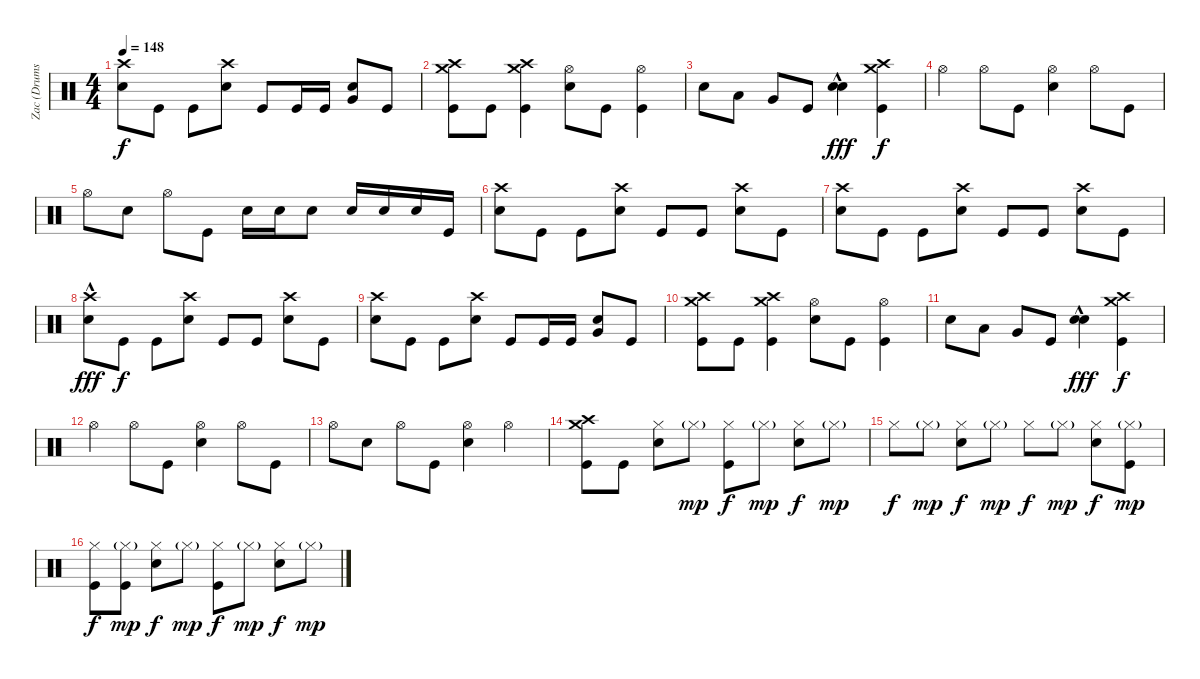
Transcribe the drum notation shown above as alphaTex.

\track ("Zac (Drums)" "Zac (Drums") {instrument percussion}
\staff {score}
\articulation defaults
\ts (4 4)
\tempo 148
\clef neutral
\ks c
("Crash high (hit)" "Electric Snare (hit)").8{dy f} "Kick (hit)".8 "Kick (hit)".8 ("Crash high (hit)" "Electric Snare (hit)").8 "Kick (hit)".8 "Kick (hit)".16 "Kick (hit)".16 ("Electric Snare (hit)" "Very Low Tom (hit)").8 "Kick (hit)".8 |
("Crash high (hit)" "Crash medium (hit)" "Kick (hit)").8 "Kick (hit)".8 ("Crash high (hit)" "Crash medium (hit)" "Kick (hit)").4 ("Hi-Hat (open)" "Electric Snare (hit)").8 "Kick (hit)".8 ("Hi-Hat (open)" "Kick (hit)").4 |
"Electric Snare (hit)".8 "Low Tom (hit)".8 "Very Low Tom (hit)".8 "Kick (hit)".8 ("Electric Snare (hit)"{hac} "Electric Snare (hit)"{hac}).4{dy fff} ("Crash high (hit)" "Crash medium (hit)" "Kick (hit)").4{dy f} |
"Hi-Hat (open)".4 "Hi-Hat (open)".8 "Kick (hit)".8 ("Hi-Hat (open)" "Electric Snare (hit)").4 "Hi-Hat (open)".8 "Kick (hit)".8 |
"Hi-Hat (open)".8 "Electric Snare (hit)".8 "Hi-Hat (open)".8 "Kick (hit)".8 "Electric Snare (hit)".16 "Electric Snare (hit)".16 "Electric Snare (hit)".8 "Electric Snare (hit)".16 "Electric Snare (hit)".16 "Electric Snare (hit)".16 "Kick (hit)".16 |
("Crash high (hit)" "Electric Snare (hit)").8 "Kick (hit)".8 "Kick (hit)".8 ("Crash high (hit)" "Electric Snare (hit)").8 "Kick (hit)".8 "Kick (hit)".8 ("Crash high (hit)" "Electric Snare (hit)").8 "Kick (hit)".8 |
("Crash high (hit)" "Electric Snare (hit)").8 "Kick (hit)".8 "Kick (hit)".8 ("Crash high (hit)" "Electric Snare (hit)").8 "Kick (hit)".8 "Kick (hit)".8 ("Crash high (hit)" "Electric Snare (hit)").8 "Kick (hit)".8 |
("Crash high (hit)"{hac} "Electric Snare (hit)").8{dy fff} "Kick (hit)".8{dy f} "Kick (hit)".8 ("Crash high (hit)" "Electric Snare (hit)").8 "Kick (hit)".8 "Kick (hit)".8 ("Crash high (hit)" "Electric Snare (hit)").8 "Kick (hit)".8 |
("Crash high (hit)" "Electric Snare (hit)").8 "Kick (hit)".8 "Kick (hit)".8 ("Crash high (hit)" "Electric Snare (hit)").8 "Kick (hit)".8 "Kick (hit)".16 "Kick (hit)".16 ("Electric Snare (hit)" "Very Low Tom (hit)").8 "Kick (hit)".8 |
("Crash high (hit)" "Crash medium (hit)" "Kick (hit)").8 "Kick (hit)".8 ("Crash high (hit)" "Crash medium (hit)" "Kick (hit)").4 ("Hi-Hat (open)" "Electric Snare (hit)").8 "Kick (hit)".8 ("Hi-Hat (open)" "Kick (hit)").4 |
"Electric Snare (hit)".8 "Low Tom (hit)".8 "Very Low Tom (hit)".8 "Kick (hit)".8 ("Electric Snare (hit)"{hac} "Electric Snare (hit)"{hac}).4{dy fff} ("Crash high (hit)" "Crash medium (hit)" "Kick (hit)").4{dy f} |
"Hi-Hat (open)".4 "Hi-Hat (open)".8 "Kick (hit)".8 ("Hi-Hat (open)" "Electric Snare (hit)").4 "Hi-Hat (open)".8 "Kick (hit)".8 |
"Hi-Hat (open)".8 "Electric Snare (hit)".8 "Hi-Hat (open)".8 "Kick (hit)".8 ("Hi-Hat (open)" "Electric Snare (hit)").4 "Hi-Hat (open)".4 |
("Crash high (hit)" "Crash medium (hit)" "Kick (hit)").8 "Kick (hit)".8 ("Hi-Hat (closed)" "Electric Snare (hit)").8 "Hi-Hat (closed)"{g}.8{dy mp} ("Hi-Hat (closed)" "Kick (hit)").8{dy f} "Hi-Hat (closed)"{g}.8{dy mp} ("Hi-Hat (closed)" "Electric Snare (hit)").8{dy f} "Hi-Hat (closed)"{g}.8{dy mp} |
"Hi-Hat (closed)".8{dy f} "Hi-Hat (closed)"{g}.8{dy mp} ("Hi-Hat (closed)" "Electric Snare (hit)").8{dy f} "Hi-Hat (closed)"{g}.8{dy mp} "Hi-Hat (closed)".8{dy f} "Hi-Hat (closed)"{g}.8{dy mp} ("Hi-Hat (closed)" "Electric Snare (hit)").8{dy f} ("Hi-Hat (closed)"{g} "Kick (hit)").8{dy mp} |
("Hi-Hat (closed)" "Kick (hit)").8{dy f} ("Hi-Hat (closed)"{g} "Kick (hit)").8{dy mp} ("Hi-Hat (closed)" "Electric Snare (hit)").8{dy f} "Hi-Hat (closed)"{g}.8{dy mp} ("Hi-Hat (closed)" "Kick (hit)").8{dy f} "Hi-Hat (closed)"{g}.8{dy mp} ("Hi-Hat (closed)" "Electric Snare (hit)").8{dy f} "Hi-Hat (closed)"{g}.8{dy mp}
